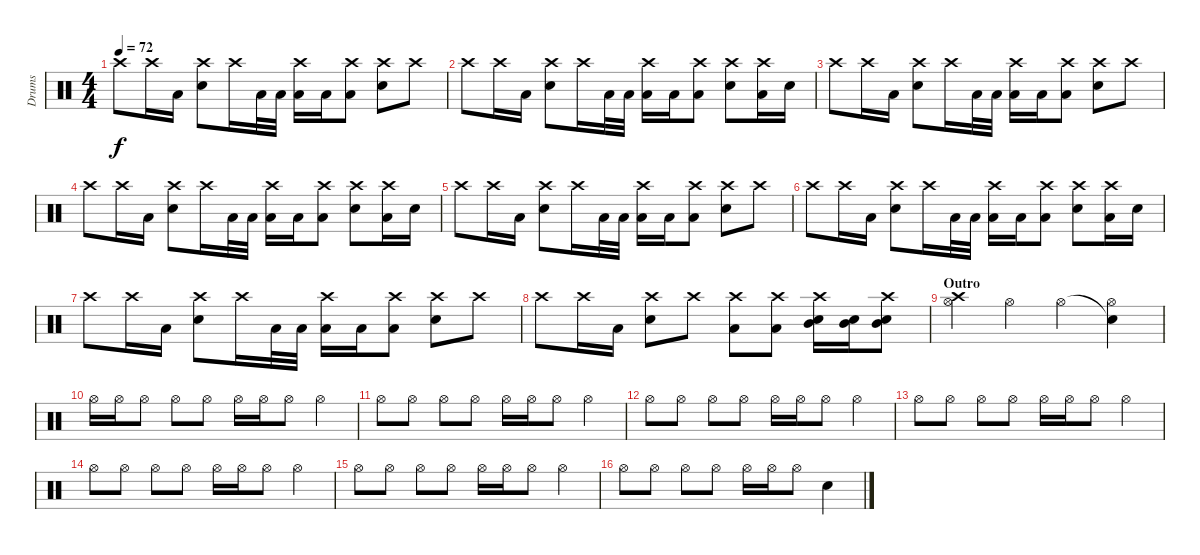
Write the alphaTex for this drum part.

\track ("Drums" "Drums") {instrument percussion}
\staff {score}
\articulation defaults
\ts (4 4)
\tempo 72
\clef neutral
\ks c "Crash high (hit)".8{dy f} "Crash high (hit)".16 "Low Tom (hit)".16
("Crash high (hit)" "Electric Snare (hit)").8 "Crash high (hit)".16 "Low Tom (hit)".32 "Low Tom (hit)".32 ("Crash high (hit)" "Low Tom (hit)").16 "Low Tom (hit)".16 ("Crash high (hit)" "Low Tom (hit)").8 ("Crash high (hit)" "Electric Snare (hit)").8 "Crash high (hit)".8 |
"Crash high (hit)".8 "Crash high (hit)".16 "Low Tom (hit)".16 ("Crash high (hit)" "Electric Snare (hit)").8 "Crash high (hit)".16 "Low Tom (hit)".32 "Low Tom (hit)".32 ("Crash high (hit)" "Low Tom (hit)").16 "Low Tom (hit)".16 ("Crash high (hit)" "Low Tom (hit)").8 ("Crash high (hit)" "Electric Snare (hit)").8 ("Crash high (hit)" "Low Tom (hit)").16 "Electric Snare (hit)".16 |
"Crash high (hit)".8 "Crash high (hit)".16 "Low Tom (hit)".16 ("Crash high (hit)" "Electric Snare (hit)").8 "Crash high (hit)".16 "Low Tom (hit)".32 "Low Tom (hit)".32 ("Crash high (hit)" "Low Tom (hit)").16 "Low Tom (hit)".16 ("Crash high (hit)" "Low Tom (hit)").8 ("Crash high (hit)" "Electric Snare (hit)").8 "Crash high (hit)".8 |
"Crash high (hit)".8 "Crash high (hit)".16 "Low Tom (hit)".16 ("Crash high (hit)" "Electric Snare (hit)").8 "Crash high (hit)".16 "Low Tom (hit)".32 "Low Tom (hit)".32 ("Crash high (hit)" "Low Tom (hit)").16 "Low Tom (hit)".16 ("Crash high (hit)" "Low Tom (hit)").8 ("Crash high (hit)" "Electric Snare (hit)").8 ("Crash high (hit)" "Low Tom (hit)").16 "Electric Snare (hit)".16 |
"Crash high (hit)".8 "Crash high (hit)".16 "Low Tom (hit)".16 ("Crash high (hit)" "Electric Snare (hit)").8 "Crash high (hit)".16 "Low Tom (hit)".32 "Low Tom (hit)".32 ("Crash high (hit)" "Low Tom (hit)").16 "Low Tom (hit)".16 ("Crash high (hit)" "Low Tom (hit)").8 ("Crash high (hit)" "Electric Snare (hit)").8 "Crash high (hit)".8 |
"Crash high (hit)".8 "Crash high (hit)".16 "Low Tom (hit)".16 ("Crash high (hit)" "Electric Snare (hit)").8 "Crash high (hit)".16 "Low Tom (hit)".32 "Low Tom (hit)".32 ("Crash high (hit)" "Low Tom (hit)").16 "Low Tom (hit)".16 ("Crash high (hit)" "Low Tom (hit)").8 ("Crash high (hit)" "Electric Snare (hit)").8 ("Crash high (hit)" "Low Tom (hit)").16 "Electric Snare (hit)".16 |
"Crash high (hit)".8 "Crash high (hit)".16 "Low Tom (hit)".16 ("Crash high (hit)" "Electric Snare (hit)").8 "Crash high (hit)".16 "Low Tom (hit)".32 "Low Tom (hit)".32 ("Crash high (hit)" "Low Tom (hit)").16 "Low Tom (hit)".16 ("Crash high (hit)" "Low Tom (hit)").8 ("Crash high (hit)" "Electric Snare (hit)").8 "Crash high (hit)".8 |
"Crash high (hit)".8 "Crash high (hit)".16 "Low Tom (hit)".16 ("Crash high (hit)" "Electric Snare (hit)").8 "Crash high (hit)".8 ("Crash high (hit)" "Low Tom (hit)").8 ("Crash high (hit)" "Low Tom (hit)").8 ("Crash high (hit)" "Electric Snare (hit)" "Mid Tom (hit)").16 ("Electric Snare (hit)" "Mid Tom (hit)").16 ("Crash high (hit)" "Electric Snare (hit)" "Mid Tom (hit)").8 |
\section ("" "Outro")
("Crash high (hit)" "Hi-Hat (open)").4 "Hi-Hat (open)".4 "Hi-Hat (open)".4 ("Snare (hit)"{t} "Hi-Hat (open)").4 |
"Hi-Hat (open)".16 "Hi-Hat (open)".16 "Hi-Hat (open)".8 "Hi-Hat (open)".8 "Hi-Hat (open)".8 "Hi-Hat (open)".16 "Hi-Hat (open)".16 "Hi-Hat (open)".8 "Hi-Hat (open)".4 |
"Hi-Hat (open)".8 "Hi-Hat (open)".8 "Hi-Hat (open)".8 "Hi-Hat (open)".8 "Hi-Hat (open)".16 "Hi-Hat (open)".16 "Hi-Hat (open)".8 "Hi-Hat (open)".4 |
"Hi-Hat (open)".8 "Hi-Hat (open)".8 "Hi-Hat (open)".8 "Hi-Hat (open)".8 "Hi-Hat (open)".16 "Hi-Hat (open)".16 "Hi-Hat (open)".8 "Hi-Hat (open)".4 |
"Hi-Hat (open)".8 "Hi-Hat (open)".8 "Hi-Hat (open)".8 "Hi-Hat (open)".8 "Hi-Hat (open)".16 "Hi-Hat (open)".16 "Hi-Hat (open)".8 "Hi-Hat (open)".4 |
"Hi-Hat (open)".8 "Hi-Hat (open)".8 "Hi-Hat (open)".8 "Hi-Hat (open)".8 "Hi-Hat (open)".16 "Hi-Hat (open)".16 "Hi-Hat (open)".8 "Hi-Hat (open)".4 |
"Hi-Hat (open)".8 "Hi-Hat (open)".8 "Hi-Hat (open)".8 "Hi-Hat (open)".8 "Hi-Hat (open)".16 "Hi-Hat (open)".16 "Hi-Hat (open)".8 "Hi-Hat (open)".4 |
"Hi-Hat (open)".8 "Hi-Hat (open)".8 "Hi-Hat (open)".8 "Hi-Hat (open)".8 "Hi-Hat (open)".16 "Hi-Hat (open)".16 "Hi-Hat (open)".8 "Electric Snare (hit)".4
